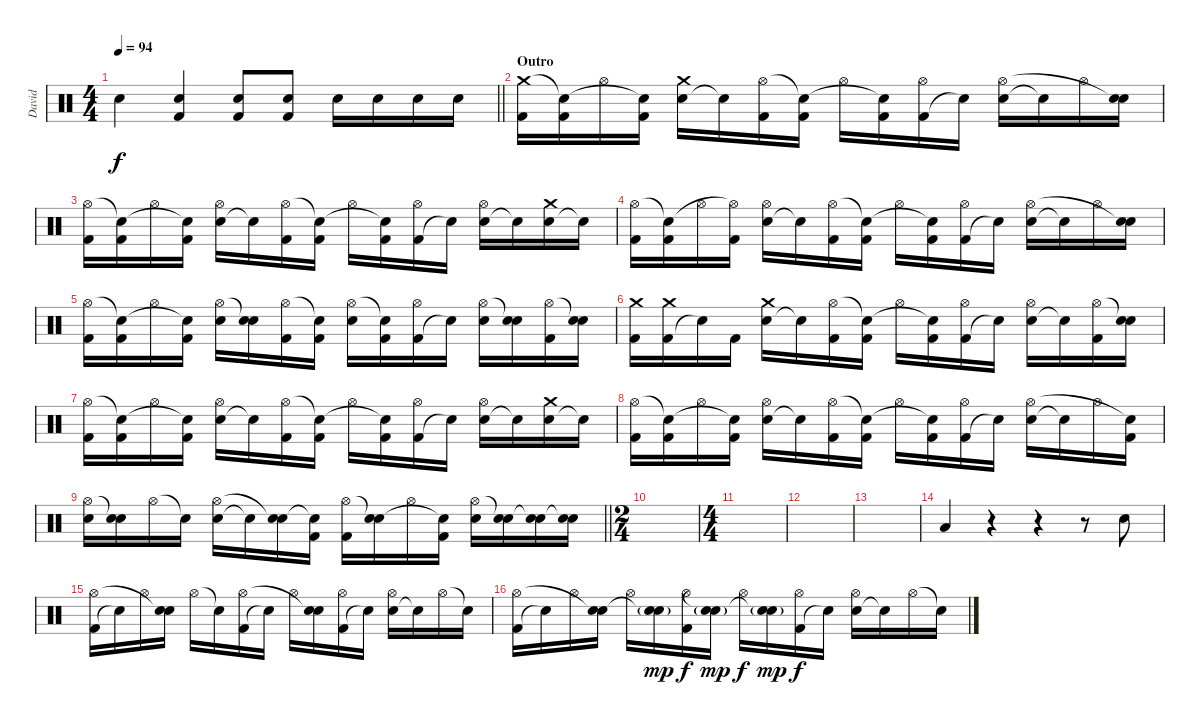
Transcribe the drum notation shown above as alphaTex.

\track ("David" "David") {instrument percussion}
\staff {score}
\articulation defaults
\ts (4 4)
\tempo 94
\clef neutral
\barLineRight lightlight
\ks c "Electric Snare (hit)".4{dy f}
("Kick (hit) 2" "Electric Snare (hit)").4 ("Kick (hit) 2" "Electric Snare (hit)").8 ("Kick (hit) 2" "Electric Snare (hit)").8 "Electric Snare (hit)".16 "Electric Snare (hit)".16 "Electric Snare (hit)".16 "Electric Snare (hit)".16 |
\section ("" "Outro")
("Kick (hit) 2" "Crash medium (hit)").16 ("Kick (hit) 2" "Snare (hit)"{t}).16 "Hi-Hat (open)".16 ("Kick (hit) 2" "Snare (hit)"{t}).16 ("Electric Snare (hit)" "Crash medium (hit)").16 "Snare (hit)"{t}.16 ("Kick (hit) 2" "Hi-Hat (open)").16 ("Kick (hit) 2" "Snare (hit)"{t}).16 "Hi-Hat (open)".16 ("Kick (hit) 2" "Snare (hit)"{t}).16 ("Kick (hit) 2" "Hi-Hat (open)").16 "Snare (hit)"{t}.16 ("Electric Snare (hit)" "Hi-Hat (open)").16 "Snare (hit)"{t}.16 "Hi-Hat (open)".16 ("Electric Snare (hit)" "Snare (hit)"{t}).16 |
("Kick (hit) 2" "Hi-Hat (open)").16 ("Kick (hit) 2" "Snare (hit)"{t}).16 "Hi-Hat (open)".16 ("Kick (hit) 2" "Snare (hit)"{t}).16 ("Electric Snare (hit)" "Hi-Hat (open)").16 "Snare (hit)"{t}.16 ("Kick (hit) 2" "Hi-Hat (open)").16 ("Kick (hit) 2" "Snare (hit)"{t}).16 "Hi-Hat (open)".16 ("Kick (hit) 2" "Snare (hit)"{t}).16 ("Kick (hit) 2" "Hi-Hat (open)").16 "Snare (hit)"{t}.16 ("Electric Snare (hit)" "Hi-Hat (open)").16 "Snare (hit)"{t}.16 ("Electric Snare (hit)" "Crash medium (hit)").16 "Snare (hit)"{t}.16 |
("Kick (hit) 2" "Hi-Hat (open)").16 ("Kick (hit) 2" "Snare (hit)"{t}).16 "Hi-Hat (open)".16 ("Kick (hit) 2" "Hi-Hat (open)"{t}).16 ("Electric Snare (hit)" "Hi-Hat (open)").16 "Snare (hit)"{t}.16 ("Kick (hit) 2" "Hi-Hat (open)").16 ("Kick (hit) 2" "Snare (hit)"{t}).16 "Hi-Hat (open)".16 ("Kick (hit) 2" "Snare (hit)"{t}).16 ("Kick (hit) 2" "Hi-Hat (open)").16 "Snare (hit)"{t}.16 ("Electric Snare (hit)" "Hi-Hat (open)").16 "Snare (hit)"{t}.16 "Hi-Hat (open)".16 ("Electric Snare (hit)" "Snare (hit)"{t}).16 |
("Kick (hit) 2" "Hi-Hat (open)").16 ("Kick (hit) 2" "Snare (hit)"{t}).16 "Hi-Hat (open)".16 ("Kick (hit) 2" "Snare (hit)"{t}).16 ("Electric Snare (hit)" "Hi-Hat (open)").16 ("Electric Snare (hit)" "Snare (hit)"{t}).16 ("Kick (hit) 2" "Hi-Hat (open)").16 ("Kick (hit) 2" "Snare (hit)"{t}).16 ("Electric Snare (hit)" "Hi-Hat (open)").16 ("Kick (hit) 2" "Snare (hit)"{t}).16 ("Kick (hit) 2" "Hi-Hat (open)").16 "Snare (hit)"{t}.16 ("Electric Snare (hit)" "Hi-Hat (open)").16 ("Electric Snare (hit)" "Snare (hit)"{t}).16 ("Kick (hit) 2" "Hi-Hat (open)").16 ("Electric Snare (hit)" "Snare (hit)"{t}).16 |
("Kick (hit) 2" "Crash medium (hit)").16 ("Kick (hit) 2" "Crash medium (hit)").16 "Snare (hit)"{t}.16 "Kick (hit) 2".16 ("Electric Snare (hit)" "Crash medium (hit)").16 "Snare (hit)"{t}.16 ("Kick (hit) 2" "Hi-Hat (open)").16 ("Kick (hit) 2" "Snare (hit)"{t}).16 "Hi-Hat (open)".16 ("Kick (hit) 2" "Snare (hit)"{t}).16 ("Kick (hit) 2" "Hi-Hat (open)").16 "Snare (hit)"{t}.16 ("Electric Snare (hit)" "Hi-Hat (open)").16 "Snare (hit)"{t}.16 ("Kick (hit) 2" "Hi-Hat (open)").16 ("Electric Snare (hit)" "Snare (hit)"{t}).16 |
("Kick (hit) 2" "Hi-Hat (open)").16 ("Kick (hit) 2" "Snare (hit)"{t}).16 "Hi-Hat (open)".16 ("Kick (hit) 2" "Snare (hit)"{t}).16 ("Electric Snare (hit)" "Hi-Hat (open)").16 "Snare (hit)"{t}.16 ("Kick (hit) 2" "Hi-Hat (open)").16 ("Kick (hit) 2" "Snare (hit)"{t}).16 "Hi-Hat (open)".16 ("Kick (hit) 2" "Snare (hit)"{t}).16 ("Kick (hit) 2" "Hi-Hat (open)").16 "Snare (hit)"{t}.16 ("Electric Snare (hit)" "Hi-Hat (open)").16 "Snare (hit)"{t}.16 ("Electric Snare (hit)" "Crash medium (hit)").16 "Snare (hit)"{t}.16 |
("Kick (hit) 2" "Hi-Hat (open)").16 ("Kick (hit) 2" "Snare (hit)"{t}).16 "Hi-Hat (open)".16 ("Kick (hit) 2" "Snare (hit)"{t}).16 ("Electric Snare (hit)" "Hi-Hat (open)").16 "Snare (hit)"{t}.16 ("Kick (hit) 2" "Hi-Hat (open)").16 ("Kick (hit) 2" "Snare (hit)"{t}).16 "Hi-Hat (open)".16 ("Kick (hit) 2" "Snare (hit)"{t}).16 ("Kick (hit) 2" "Hi-Hat (open)").16 "Snare (hit)"{t}.16 ("Electric Snare (hit)" "Hi-Hat (open)").16 "Snare (hit)"{t}.16 "Hi-Hat (open)".16 ("Kick (hit) 2" "Snare (hit)"{t}).16 |
\barLineRight lightlight
("Electric Snare (hit)" "Hi-Hat (open)").16 ("Electric Snare (hit)" "Snare (hit)"{t}).16 "Hi-Hat (open)".16 "Snare (hit)"{t}.16 ("Electric Snare (hit)" "Hi-Hat (open)").16 "Snare (hit)"{t}.16 ("Electric Snare (hit)" "Snare (hit)"{t}).16 ("Kick (hit) 2" "Snare (hit)"{t}).16 ("Kick (hit) 2" "Hi-Hat (open)").16 ("Electric Snare (hit)" "Snare (hit)"{t}).16 "Hi-Hat (open)".16 ("Kick (hit) 2" "Snare (hit)"{t}).16 ("Electric Snare (hit)" "Hi-Hat (open)").16 ("Electric Snare (hit)" "Snare (hit)"{t}).16 ("Electric Snare (hit)" "Snare (hit)"{t}).16 ("Electric Snare (hit)" "Snare (hit)"{t}).16 |
\ts (2 4)
|
\ts (4 4)
|
|
|
"Low Tom (hit)".4 r.4 r.4 r.8 "Electric Snare (hit)".8 |
("Kick (hit) 2" "Hi-Hat (open)").16 "Snare (hit)"{t}.16 "Hi-Hat (open)".16 ("Electric Snare (hit)" "Snare (hit)"{t}).16 "Hi-Hat (open)".16 "Snare (hit)"{t}.16 ("Kick (hit) 2" "Hi-Hat (open)").16 "Snare (hit)"{t}.16 "Hi-Hat (open)".16 ("Electric Snare (hit)" "Snare (hit)"{t}).16 ("Kick (hit) 2" "Hi-Hat (open)").16 "Snare (hit)"{t}.16 ("Electric Snare (hit)" "Hi-Hat (open)").16 "Snare (hit)"{t}.16 "Hi-Hat (open)".16 "Snare (hit)"{t}.16 |
("Kick (hit) 2" "Hi-Hat (open)").16 "Snare (hit)"{t}.16 "Hi-Hat (open)".16 ("Electric Snare (hit)" "Snare (hit)"{t}).16 "Hi-Hat (open)".16 ("Electric Snare (hit)"{g} "Snare (hit)"{t}).16{dy mp} ("Kick (hit) 2" "Hi-Hat (open)").16{dy f} ("Electric Snare (hit)"{g} "Snare (hit)"{t}).16{dy mp} "Hi-Hat (open)".16{dy f} ("Electric Snare (hit)"{g} "Snare (hit)"{t}).16{dy mp} ("Kick (hit) 2" "Hi-Hat (open)").16{dy f} "Snare (hit)"{t}.16 ("Electric Snare (hit)" "Hi-Hat (open)").16 "Snare (hit)"{t}.16 "Hi-Hat (open)".16 "Snare (hit)"{t}.16
